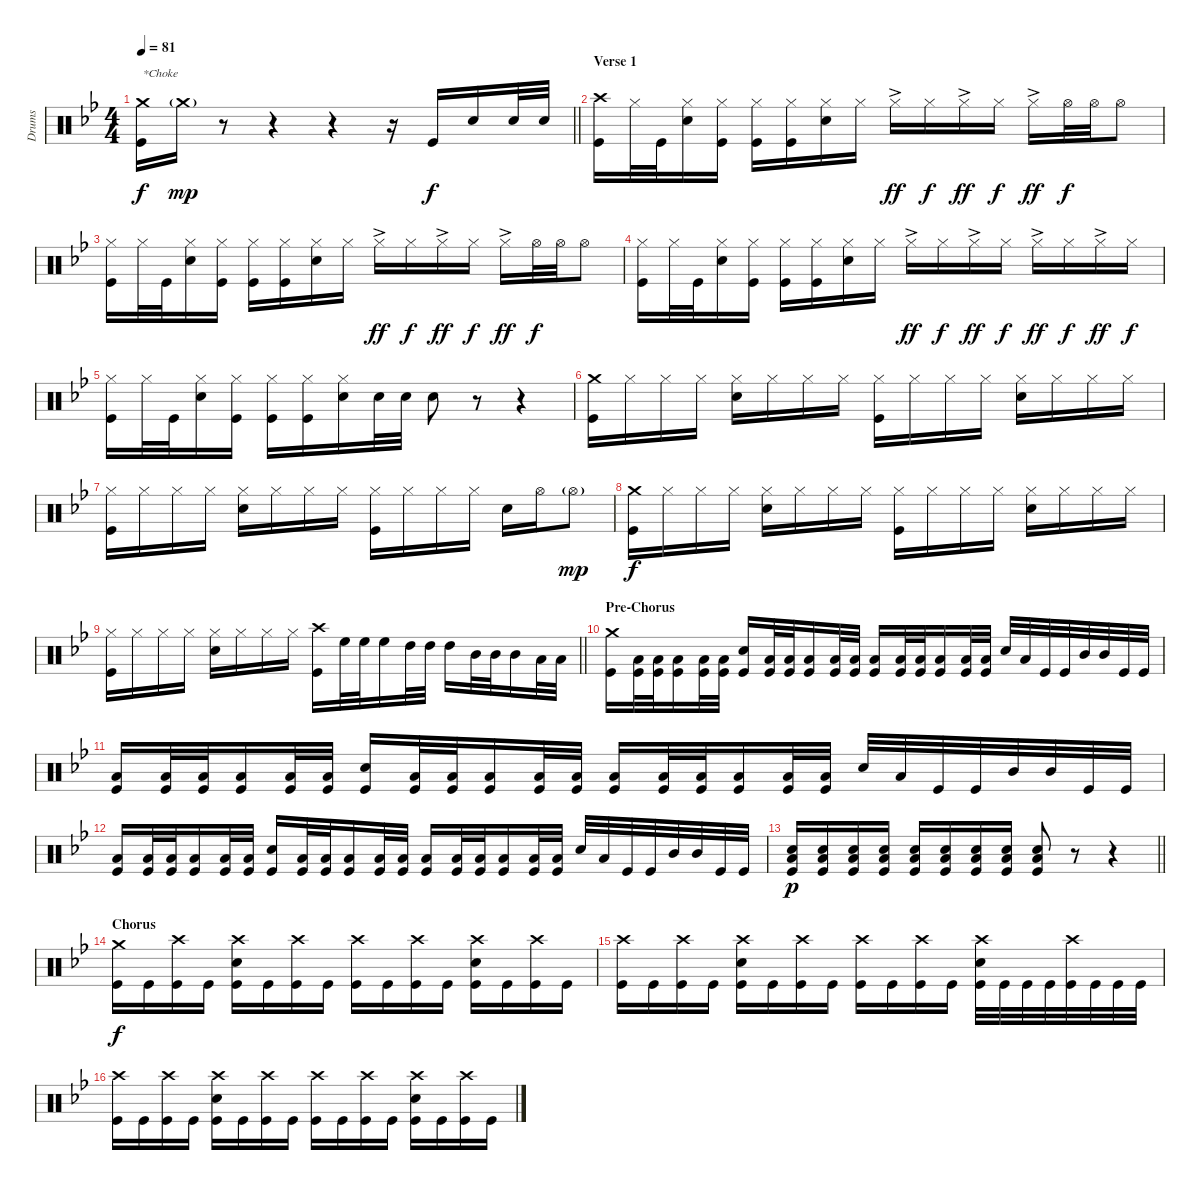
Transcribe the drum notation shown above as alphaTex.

\track ("Drums" "Drums") {instrument percussion}
\staff {score}
\articulation defaults
\ts (4 4)
\tempo 81
\clef neutral
\barLineRight lightlight
\ks gminor
("Crash medium (hit)" "Kick (hit)").16{txt "*Choke" dy f} "Crash medium (hit)"{g}.16{dy mp} r.8 r.4 r.4 r.16 "Kick (hit)".16{dy f} "Electric Snare (hit)".16 "Electric Snare (hit)".32 "Electric Snare (hit)".32 |
\section ("" "Verse 1")
("Crash high (hit)" "Kick (hit)").16 "Hi-Hat (closed)".32 "Kick (hit)".32 ("Hi-Hat (closed)" "Electric Snare (hit)").16 ("Hi-Hat (closed)" "Kick (hit)").16 ("Hi-Hat (closed)" "Kick (hit)").16 ("Hi-Hat (closed)" "Kick (hit)").16 ("Hi-Hat (closed)" "Electric Snare (hit)").16 "Hi-Hat (closed)".16 "Hi-Hat (closed)"{ac}.16{dy ff} "Hi-Hat (closed)".16{dy f} "Hi-Hat (closed)"{ac}.16{dy ff} "Hi-Hat (closed)".16{dy f} "Hi-Hat (closed)"{ac}.16{dy ff} "Hi-Hat (open)".32{dy f} "Hi-Hat (open)".32 "Hi-Hat (open)".8 |
("Hi-Hat (closed)" "Kick (hit)").16 "Hi-Hat (closed)".32 "Kick (hit)".32 ("Hi-Hat (closed)" "Electric Snare (hit)").16 ("Hi-Hat (closed)" "Kick (hit)").16 ("Hi-Hat (closed)" "Kick (hit)").16 ("Hi-Hat (closed)" "Kick (hit)").16 ("Hi-Hat (closed)" "Electric Snare (hit)").16 "Hi-Hat (closed)".16 "Hi-Hat (closed)"{ac}.16{dy ff} "Hi-Hat (closed)".16{dy f} "Hi-Hat (closed)"{ac}.16{dy ff} "Hi-Hat (closed)".16{dy f} "Hi-Hat (closed)"{ac}.16{dy ff} "Hi-Hat (open)".32{dy f} "Hi-Hat (open)".32 "Hi-Hat (open)".8 |
("Hi-Hat (closed)" "Kick (hit)").16 "Hi-Hat (closed)".32 "Kick (hit)".32 ("Hi-Hat (closed)" "Electric Snare (hit)").16 ("Hi-Hat (closed)" "Kick (hit)").16 ("Hi-Hat (closed)" "Kick (hit)").16 ("Hi-Hat (closed)" "Kick (hit)").16 ("Hi-Hat (closed)" "Electric Snare (hit)").16 "Hi-Hat (closed)".16 "Hi-Hat (closed)"{ac}.16{dy ff} "Hi-Hat (closed)".16{dy f} "Hi-Hat (closed)"{ac}.16{dy ff} "Hi-Hat (closed)".16{dy f} "Hi-Hat (closed)"{ac}.16{dy ff} "Hi-Hat (closed)".16{dy f} "Hi-Hat (closed)"{ac}.16{dy ff} "Hi-Hat (closed)".16{dy f} |
("Hi-Hat (closed)" "Kick (hit)").16 "Hi-Hat (closed)".32 "Kick (hit)".32 ("Hi-Hat (closed)" "Electric Snare (hit)").16 ("Hi-Hat (closed)" "Kick (hit)").16 ("Hi-Hat (closed)" "Kick (hit)").16 ("Hi-Hat (closed)" "Kick (hit)").16 ("Hi-Hat (closed)" "Electric Snare (hit)").16 "Electric Snare (hit)".32 "Electric Snare (hit)".32 "Electric Snare (hit)".8 r.8 r.4 |
("Crash medium (hit)" "Kick (hit)").16 "Hi-Hat (closed)".16 "Hi-Hat (closed)".16 "Hi-Hat (closed)".16 ("Hi-Hat (closed)" "Electric Snare (hit)").16 "Hi-Hat (closed)".16 "Hi-Hat (closed)".16 "Hi-Hat (closed)".16 ("Hi-Hat (closed)" "Kick (hit)").16 "Hi-Hat (closed)".16 "Hi-Hat (closed)".16 "Hi-Hat (closed)".16 ("Hi-Hat (closed)" "Electric Snare (hit)").16 "Hi-Hat (closed)".16 "Hi-Hat (closed)".16 "Hi-Hat (closed)".16 |
("Hi-Hat (closed)" "Kick (hit)").16 "Hi-Hat (closed)".16 "Hi-Hat (closed)".16 "Hi-Hat (closed)".16 ("Hi-Hat (closed)" "Electric Snare (hit)").16 "Hi-Hat (closed)".16 "Hi-Hat (closed)".16 "Hi-Hat (closed)".16 ("Hi-Hat (closed)" "Kick (hit)").16 "Hi-Hat (closed)".16 "Hi-Hat (closed)".16 "Hi-Hat (closed)".16 "Electric Snare (hit)".16 "Hi-Hat (open)".16 "Hi-Hat (open)"{g}.8{dy mp} |
("Crash medium (hit)" "Kick (hit)").16{dy f} "Hi-Hat (closed)".16 "Hi-Hat (closed)".16 "Hi-Hat (closed)".16 ("Hi-Hat (closed)" "Electric Snare (hit)").16 "Hi-Hat (closed)".16 "Hi-Hat (closed)".16 "Hi-Hat (closed)".16 ("Hi-Hat (closed)" "Kick (hit)").16 "Hi-Hat (closed)".16 "Hi-Hat (closed)".16 "Hi-Hat (closed)".16 ("Hi-Hat (closed)" "Electric Snare (hit)").16 "Hi-Hat (closed)".16 "Hi-Hat (closed)".16 "Hi-Hat (closed)".16 |
\barLineRight lightlight
("Hi-Hat (closed)" "Kick (hit)").16 "Hi-Hat (closed)".16 "Hi-Hat (closed)".16 "Hi-Hat (closed)".16 ("Hi-Hat (closed)" "Electric Snare (hit)").16 "Hi-Hat (closed)".16 "Hi-Hat (closed)".16 "Hi-Hat (closed)".16 ("Crash high (hit)" "Kick (hit)").16 "High Floor Tom (hit)".32 "High Floor Tom (hit)".32 "High Floor Tom (hit)".16 "High Tom (hit)".32 "High Tom (hit)".32 "High Tom (hit)".16 "Mid Tom (hit)".32 "Mid Tom (hit)".32 "Mid Tom (hit)".16 "Low Tom (hit)".32 "Low Tom (hit)".32 |
\section ("" "Pre-Chorus")
("Crash medium (hit)" "Kick (hit)").16 ("Low Tom (hit)" "Kick (hit)").32 ("Low Tom (hit)" "Kick (hit)").32 ("Low Tom (hit)" "Kick (hit)").16 ("Low Tom (hit)" "Kick (hit)").32 ("Low Tom (hit)" "Kick (hit)").32 ("Electric Snare (hit)" "Kick (hit)").16 ("Low Tom (hit)" "Kick (hit)").32 ("Low Tom (hit)" "Kick (hit)").32 ("Low Tom (hit)" "Kick (hit)").16 ("Low Tom (hit)" "Kick (hit)").32 ("Low Tom (hit)" "Kick (hit)").32 ("Low Tom (hit)" "Kick (hit)").16 ("Low Tom (hit)" "Kick (hit)").32 ("Low Tom (hit)" "Kick (hit)").32 ("Low Tom (hit)" "Kick (hit)").16 ("Low Tom (hit)" "Kick (hit)").32 ("Low Tom (hit)" "Kick (hit)").32 "Electric Snare (hit)".32 "Low Tom (hit)".32 "Kick (hit)".32 "Kick (hit)".32 "Mid Tom (hit)".32 "Mid Tom (hit)".32 "Kick (hit)".32 "Kick (hit)".32 |
("Low Tom (hit)" "Kick (hit)").16 ("Low Tom (hit)" "Kick (hit)").32 ("Low Tom (hit)" "Kick (hit)").32 ("Low Tom (hit)" "Kick (hit)").16 ("Low Tom (hit)" "Kick (hit)").32 ("Low Tom (hit)" "Kick (hit)").32 ("Electric Snare (hit)" "Kick (hit)").16 ("Low Tom (hit)" "Kick (hit)").32 ("Low Tom (hit)" "Kick (hit)").32 ("Low Tom (hit)" "Kick (hit)").16 ("Low Tom (hit)" "Kick (hit)").32 ("Low Tom (hit)" "Kick (hit)").32 ("Low Tom (hit)" "Kick (hit)").16 ("Low Tom (hit)" "Kick (hit)").32 ("Low Tom (hit)" "Kick (hit)").32 ("Low Tom (hit)" "Kick (hit)").16 ("Low Tom (hit)" "Kick (hit)").32 ("Low Tom (hit)" "Kick (hit)").32 "Electric Snare (hit)".32 "Low Tom (hit)".32 "Kick (hit)".32 "Kick (hit)".32 "Mid Tom (hit)".32 "Mid Tom (hit)".32 "Kick (hit)".32 "Kick (hit)".32 |
("Low Tom (hit)" "Kick (hit)").16 ("Low Tom (hit)" "Kick (hit)").32 ("Low Tom (hit)" "Kick (hit)").32 ("Low Tom (hit)" "Kick (hit)").16 ("Low Tom (hit)" "Kick (hit)").32 ("Low Tom (hit)" "Kick (hit)").32 ("Electric Snare (hit)" "Kick (hit)").16 ("Low Tom (hit)" "Kick (hit)").32 ("Low Tom (hit)" "Kick (hit)").32 ("Low Tom (hit)" "Kick (hit)").16 ("Low Tom (hit)" "Kick (hit)").32 ("Low Tom (hit)" "Kick (hit)").32 ("Low Tom (hit)" "Kick (hit)").16 ("Low Tom (hit)" "Kick (hit)").32 ("Low Tom (hit)" "Kick (hit)").32 ("Low Tom (hit)" "Kick (hit)").16 ("Low Tom (hit)" "Kick (hit)").32 ("Low Tom (hit)" "Kick (hit)").32 "Electric Snare (hit)".32 "Low Tom (hit)".32 "Kick (hit)".32 "Kick (hit)".32 "Mid Tom (hit)".32 "Mid Tom (hit)".32 "Kick (hit)".32 "Kick (hit)".32 |
\barLineRight lightlight
("Low Tom (hit)" "Electric Snare (hit)" "Kick (hit)").16{dy p} ("Low Tom (hit)" "Electric Snare (hit)" "Kick (hit)").16 ("Low Tom (hit)" "Electric Snare (hit)" "Kick (hit)").16 ("Low Tom (hit)" "Electric Snare (hit)" "Kick (hit)").16 ("Low Tom (hit)" "Electric Snare (hit)" "Kick (hit)").16 ("Low Tom (hit)" "Electric Snare (hit)" "Kick (hit)").16 ("Low Tom (hit)" "Electric Snare (hit)" "Kick (hit)").16 ("Low Tom (hit)" "Electric Snare (hit)" "Kick (hit)").16 ("Low Tom (hit)" "Electric Snare (hit)" "Kick (hit)").8 r.8 r.4 |
\section ("" "Chorus")
("Crash medium (hit)" "Kick (hit)").16{dy f} "Kick (hit)".16 ("Crash high (hit)" "Kick (hit)").16 "Kick (hit)".16 ("Crash high (hit)" "Electric Snare (hit)" "Kick (hit)").16 "Kick (hit)".16 ("Crash high (hit)" "Kick (hit)").16 "Kick (hit)".16 ("Crash high (hit)" "Kick (hit)").16 "Kick (hit)".16 ("Crash high (hit)" "Kick (hit)").16 "Kick (hit)".16 ("Crash high (hit)" "Electric Snare (hit)" "Kick (hit)").16 "Kick (hit)".16 ("Crash high (hit)" "Kick (hit)").16 "Kick (hit)".16 |
("Crash high (hit)" "Kick (hit)").16 "Kick (hit)".16 ("Crash high (hit)" "Kick (hit)").16 "Kick (hit)".16 ("Crash high (hit)" "Electric Snare (hit)" "Kick (hit)").16 "Kick (hit)".16 ("Crash high (hit)" "Kick (hit)").16 "Kick (hit)".16 ("Crash high (hit)" "Kick (hit)").16 "Kick (hit)".16 ("Crash high (hit)" "Kick (hit)").16 "Kick (hit)".16 ("Crash high (hit)" "Electric Snare (hit)" "Kick (hit)").32 "Kick (hit)".32 "Kick (hit)".32 "Kick (hit)".32 ("Crash high (hit)" "Kick (hit)").32 "Kick (hit)".32 "Kick (hit)".32 "Kick (hit)".32 |
("Crash high (hit)" "Kick (hit)").16 "Kick (hit)".16 ("Crash high (hit)" "Kick (hit)").16 "Kick (hit)".16 ("Crash high (hit)" "Electric Snare (hit)" "Kick (hit)").16 "Kick (hit)".16 ("Crash high (hit)" "Kick (hit)").16 "Kick (hit)".16 ("Crash high (hit)" "Kick (hit)").16 "Kick (hit)".16 ("Crash high (hit)" "Kick (hit)").16 "Kick (hit)".16 ("Crash high (hit)" "Electric Snare (hit)" "Kick (hit)").16 "Kick (hit)".16 ("Crash high (hit)" "Kick (hit)").16 "Kick (hit)".16
